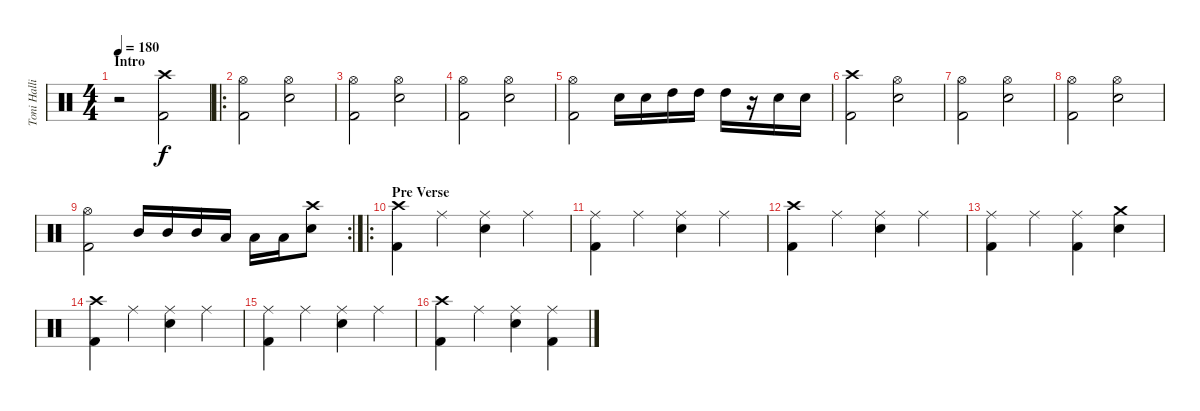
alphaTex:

\track ("Toni Hallio" "Toni Halli") {instrument percussion}
\staff {score}
\articulation defaults
\ts (4 4)
\section ("" "Intro")
\tempo 180
\clef neutral
\ks c
r.2{dy f} ("Crash high (hit)" "Kick (hit) 2").2 |
\ro
("Hi-Hat (open)" "Kick (hit) 2").2 ("Hi-Hat (open)" "Electric Snare (hit)").2 |
("Hi-Hat (open)" "Kick (hit) 2").2 ("Hi-Hat (open)" "Electric Snare (hit)").2 |
("Hi-Hat (open)" "Kick (hit) 2").2 ("Hi-Hat (open)" "Electric Snare (hit)").2 |
("Hi-Hat (open)" "Kick (hit) 2").2 "Electric Snare (hit)".16 "Electric Snare (hit)".16 "High Tom (hit)".16 "High Tom (hit)".16 "High Tom (hit)".16 r.16 "Electric Snare (hit)".16 "Electric Snare (hit)".16 |
("Crash high (hit)" "Kick (hit) 2").2 ("Hi-Hat (open)" "Electric Snare (hit)").2 |
("Hi-Hat (open)" "Kick (hit) 2").2 ("Hi-Hat (open)" "Electric Snare (hit)").2 |
("Hi-Hat (open)" "Kick (hit) 2").2 ("Hi-Hat (open)" "Electric Snare (hit)").2 |
\rc 2
("Hi-Hat (open)" "Kick (hit) 2").2 "Mid Tom (hit)".16 "Mid Tom (hit)".16 "Mid Tom (hit)".16 "Low Tom (hit)".16 "Low Tom (hit)".16 "Low Tom (hit)".16 ("Crash high (hit)" "Electric Snare (hit)").8 |
\ro
\section ("" "Pre Verse")
("Crash high (hit)" "Kick (hit) 2").4 "Ride (middle)".4 ("Ride (middle)" "Electric Snare (hit)").4 "Ride (middle)".4 |
("Ride (middle)" "Kick (hit) 2").4 "Ride (middle)".4 ("Ride (middle)" "Electric Snare (hit)").4 "Ride (middle)".4 |
("Crash high (hit)" "Kick (hit) 2").4 "Ride (middle)".4 ("Ride (middle)" "Electric Snare (hit)").4 "Ride (middle)".4 |
("Ride (middle)" "Kick (hit) 2").4 "Ride (middle)".4 ("Ride (middle)" "Kick (hit) 2").4 ("Crash medium (hit)" "Electric Snare (hit)").4 |
("Crash high (hit)" "Kick (hit) 2").4 "Ride (middle)".4 ("Ride (middle)" "Electric Snare (hit)").4 "Ride (middle)".4 |
("Ride (middle)" "Kick (hit) 2").4 "Ride (middle)".4 ("Ride (middle)" "Electric Snare (hit)").4 "Ride (middle)".4 |
("Crash high (hit)" "Kick (hit) 2").4 "Ride (middle)".4 ("Ride (middle)" "Electric Snare (hit)").4 ("Ride (middle)" "Kick (hit) 2").4
